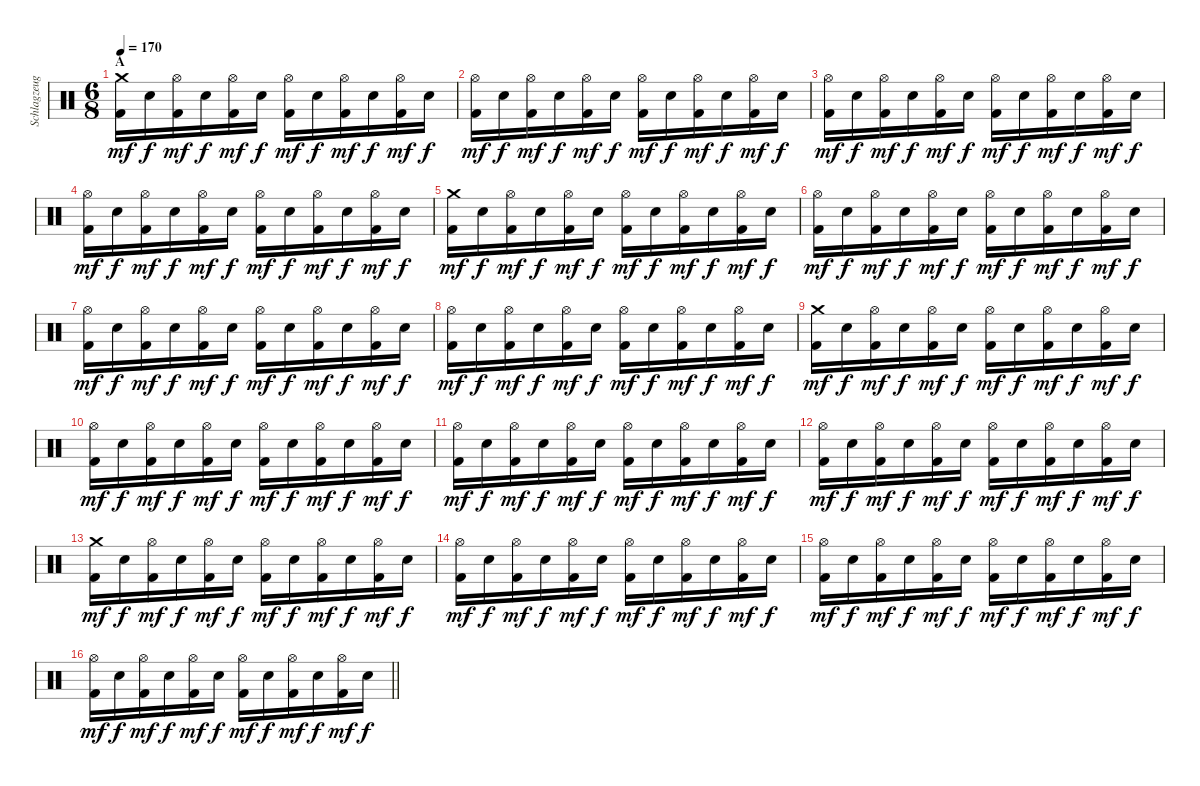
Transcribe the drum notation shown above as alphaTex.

\track ("Schlagzeug" "Schlagzeug") {instrument percussion}
\staff {score}
\articulation defaults
\ts (6 8)
\section ("" "A")
\tempo 170
\clef neutral
\ks c
("Crash medium (hit)" "Kick (hit) 2").16{dy mf} "Electric Snare (hit)".16{dy f} ("Hi-Hat (open)" "Kick (hit) 2").16{dy mf} "Electric Snare (hit)".16{dy f} ("Hi-Hat (open)" "Kick (hit) 2").16{dy mf} "Electric Snare (hit)".16{dy f} ("Hi-Hat (open)" "Kick (hit) 2").16{dy mf} "Electric Snare (hit)".16{dy f} ("Hi-Hat (open)" "Kick (hit) 2").16{dy mf} "Electric Snare (hit)".16{dy f} ("Hi-Hat (open)" "Kick (hit) 2").16{dy mf} "Electric Snare (hit)".16{dy f} |
("Hi-Hat (open)" "Kick (hit) 2").16{dy mf} "Electric Snare (hit)".16{dy f} ("Hi-Hat (open)" "Kick (hit) 2").16{dy mf} "Electric Snare (hit)".16{dy f} ("Hi-Hat (open)" "Kick (hit) 2").16{dy mf} "Electric Snare (hit)".16{dy f} ("Hi-Hat (open)" "Kick (hit) 2").16{dy mf} "Electric Snare (hit)".16{dy f} ("Hi-Hat (open)" "Kick (hit) 2").16{dy mf} "Electric Snare (hit)".16{dy f} ("Hi-Hat (open)" "Kick (hit) 2").16{dy mf} "Electric Snare (hit)".16{dy f} |
("Hi-Hat (open)" "Kick (hit) 2").16{dy mf} "Electric Snare (hit)".16{dy f} ("Hi-Hat (open)" "Kick (hit) 2").16{dy mf} "Electric Snare (hit)".16{dy f} ("Hi-Hat (open)" "Kick (hit) 2").16{dy mf} "Electric Snare (hit)".16{dy f} ("Hi-Hat (open)" "Kick (hit) 2").16{dy mf} "Electric Snare (hit)".16{dy f} ("Hi-Hat (open)" "Kick (hit) 2").16{dy mf} "Electric Snare (hit)".16{dy f} ("Hi-Hat (open)" "Kick (hit) 2").16{dy mf} "Electric Snare (hit)".16{dy f} |
("Hi-Hat (open)" "Kick (hit) 2").16{dy mf} "Electric Snare (hit)".16{dy f} ("Hi-Hat (open)" "Kick (hit) 2").16{dy mf} "Electric Snare (hit)".16{dy f} ("Hi-Hat (open)" "Kick (hit) 2").16{dy mf} "Electric Snare (hit)".16{dy f} ("Hi-Hat (open)" "Kick (hit) 2").16{dy mf} "Electric Snare (hit)".16{dy f} ("Hi-Hat (open)" "Kick (hit) 2").16{dy mf} "Electric Snare (hit)".16{dy f} ("Hi-Hat (open)" "Kick (hit) 2").16{dy mf} "Electric Snare (hit)".16{dy f} |
("Crash medium (hit)" "Kick (hit) 2").16{dy mf} "Electric Snare (hit)".16{dy f} ("Hi-Hat (open)" "Kick (hit) 2").16{dy mf} "Electric Snare (hit)".16{dy f} ("Hi-Hat (open)" "Kick (hit) 2").16{dy mf} "Electric Snare (hit)".16{dy f} ("Hi-Hat (open)" "Kick (hit) 2").16{dy mf} "Electric Snare (hit)".16{dy f} ("Hi-Hat (open)" "Kick (hit) 2").16{dy mf} "Electric Snare (hit)".16{dy f} ("Hi-Hat (open)" "Kick (hit) 2").16{dy mf} "Electric Snare (hit)".16{dy f} |
("Hi-Hat (open)" "Kick (hit) 2").16{dy mf} "Electric Snare (hit)".16{dy f} ("Hi-Hat (open)" "Kick (hit) 2").16{dy mf} "Electric Snare (hit)".16{dy f} ("Hi-Hat (open)" "Kick (hit) 2").16{dy mf} "Electric Snare (hit)".16{dy f} ("Hi-Hat (open)" "Kick (hit) 2").16{dy mf} "Electric Snare (hit)".16{dy f} ("Hi-Hat (open)" "Kick (hit) 2").16{dy mf} "Electric Snare (hit)".16{dy f} ("Hi-Hat (open)" "Kick (hit) 2").16{dy mf} "Electric Snare (hit)".16{dy f} |
("Hi-Hat (open)" "Kick (hit) 2").16{dy mf} "Electric Snare (hit)".16{dy f} ("Hi-Hat (open)" "Kick (hit) 2").16{dy mf} "Electric Snare (hit)".16{dy f} ("Hi-Hat (open)" "Kick (hit) 2").16{dy mf} "Electric Snare (hit)".16{dy f} ("Hi-Hat (open)" "Kick (hit) 2").16{dy mf} "Electric Snare (hit)".16{dy f} ("Hi-Hat (open)" "Kick (hit) 2").16{dy mf} "Electric Snare (hit)".16{dy f} ("Hi-Hat (open)" "Kick (hit) 2").16{dy mf} "Electric Snare (hit)".16{dy f} |
("Hi-Hat (open)" "Kick (hit) 2").16{dy mf} "Electric Snare (hit)".16{dy f} ("Hi-Hat (open)" "Kick (hit) 2").16{dy mf} "Electric Snare (hit)".16{dy f} ("Hi-Hat (open)" "Kick (hit) 2").16{dy mf} "Electric Snare (hit)".16{dy f} ("Hi-Hat (open)" "Kick (hit) 2").16{dy mf} "Electric Snare (hit)".16{dy f} ("Hi-Hat (open)" "Kick (hit) 2").16{dy mf} "Electric Snare (hit)".16{dy f} ("Hi-Hat (open)" "Kick (hit) 2").16{dy mf} "Electric Snare (hit)".16{dy f} |
("Crash medium (hit)" "Kick (hit) 2").16{dy mf} "Electric Snare (hit)".16{dy f} ("Hi-Hat (open)" "Kick (hit) 2").16{dy mf} "Electric Snare (hit)".16{dy f} ("Hi-Hat (open)" "Kick (hit) 2").16{dy mf} "Electric Snare (hit)".16{dy f} ("Hi-Hat (open)" "Kick (hit) 2").16{dy mf} "Electric Snare (hit)".16{dy f} ("Hi-Hat (open)" "Kick (hit) 2").16{dy mf} "Electric Snare (hit)".16{dy f} ("Hi-Hat (open)" "Kick (hit) 2").16{dy mf} "Electric Snare (hit)".16{dy f} |
("Hi-Hat (open)" "Kick (hit) 2").16{dy mf} "Electric Snare (hit)".16{dy f} ("Hi-Hat (open)" "Kick (hit) 2").16{dy mf} "Electric Snare (hit)".16{dy f} ("Hi-Hat (open)" "Kick (hit) 2").16{dy mf} "Electric Snare (hit)".16{dy f} ("Hi-Hat (open)" "Kick (hit) 2").16{dy mf} "Electric Snare (hit)".16{dy f} ("Hi-Hat (open)" "Kick (hit) 2").16{dy mf} "Electric Snare (hit)".16{dy f} ("Hi-Hat (open)" "Kick (hit) 2").16{dy mf} "Electric Snare (hit)".16{dy f} |
("Hi-Hat (open)" "Kick (hit) 2").16{dy mf} "Electric Snare (hit)".16{dy f} ("Hi-Hat (open)" "Kick (hit) 2").16{dy mf} "Electric Snare (hit)".16{dy f} ("Hi-Hat (open)" "Kick (hit) 2").16{dy mf} "Electric Snare (hit)".16{dy f} ("Hi-Hat (open)" "Kick (hit) 2").16{dy mf} "Electric Snare (hit)".16{dy f} ("Hi-Hat (open)" "Kick (hit) 2").16{dy mf} "Electric Snare (hit)".16{dy f} ("Hi-Hat (open)" "Kick (hit) 2").16{dy mf} "Electric Snare (hit)".16{dy f} |
("Hi-Hat (open)" "Kick (hit) 2").16{dy mf} "Electric Snare (hit)".16{dy f} ("Hi-Hat (open)" "Kick (hit) 2").16{dy mf} "Electric Snare (hit)".16{dy f} ("Hi-Hat (open)" "Kick (hit) 2").16{dy mf} "Electric Snare (hit)".16{dy f} ("Hi-Hat (open)" "Kick (hit) 2").16{dy mf} "Electric Snare (hit)".16{dy f} ("Hi-Hat (open)" "Kick (hit) 2").16{dy mf} "Electric Snare (hit)".16{dy f} ("Hi-Hat (open)" "Kick (hit) 2").16{dy mf} "Electric Snare (hit)".16{dy f} |
("Crash medium (hit)" "Kick (hit) 2").16{dy mf} "Electric Snare (hit)".16{dy f} ("Hi-Hat (open)" "Kick (hit) 2").16{dy mf} "Electric Snare (hit)".16{dy f} ("Hi-Hat (open)" "Kick (hit) 2").16{dy mf} "Electric Snare (hit)".16{dy f} ("Hi-Hat (open)" "Kick (hit) 2").16{dy mf} "Electric Snare (hit)".16{dy f} ("Hi-Hat (open)" "Kick (hit) 2").16{dy mf} "Electric Snare (hit)".16{dy f} ("Hi-Hat (open)" "Kick (hit) 2").16{dy mf} "Electric Snare (hit)".16{dy f} |
("Hi-Hat (open)" "Kick (hit) 2").16{dy mf} "Electric Snare (hit)".16{dy f} ("Hi-Hat (open)" "Kick (hit) 2").16{dy mf} "Electric Snare (hit)".16{dy f} ("Hi-Hat (open)" "Kick (hit) 2").16{dy mf} "Electric Snare (hit)".16{dy f} ("Hi-Hat (open)" "Kick (hit) 2").16{dy mf} "Electric Snare (hit)".16{dy f} ("Hi-Hat (open)" "Kick (hit) 2").16{dy mf} "Electric Snare (hit)".16{dy f} ("Hi-Hat (open)" "Kick (hit) 2").16{dy mf} "Electric Snare (hit)".16{dy f} |
("Hi-Hat (open)" "Kick (hit) 2").16{dy mf} "Electric Snare (hit)".16{dy f} ("Hi-Hat (open)" "Kick (hit) 2").16{dy mf} "Electric Snare (hit)".16{dy f} ("Hi-Hat (open)" "Kick (hit) 2").16{dy mf} "Electric Snare (hit)".16{dy f} ("Hi-Hat (open)" "Kick (hit) 2").16{dy mf} "Electric Snare (hit)".16{dy f} ("Hi-Hat (open)" "Kick (hit) 2").16{dy mf} "Electric Snare (hit)".16{dy f} ("Hi-Hat (open)" "Kick (hit) 2").16{dy mf} "Electric Snare (hit)".16{dy f} |
\barLineRight lightlight
("Hi-Hat (open)" "Kick (hit) 2").16{dy mf} "Electric Snare (hit)".16{dy f} ("Hi-Hat (open)" "Kick (hit) 2").16{dy mf} "Electric Snare (hit)".16{dy f} ("Hi-Hat (open)" "Kick (hit) 2").16{dy mf} "Electric Snare (hit)".16{dy f} ("Hi-Hat (open)" "Kick (hit) 2").16{dy mf} "Electric Snare (hit)".16{dy f} ("Hi-Hat (open)" "Kick (hit) 2").16{dy mf} "Electric Snare (hit)".16{dy f} ("Hi-Hat (open)" "Kick (hit) 2").16{dy mf} "Electric Snare (hit)".16{dy f}
